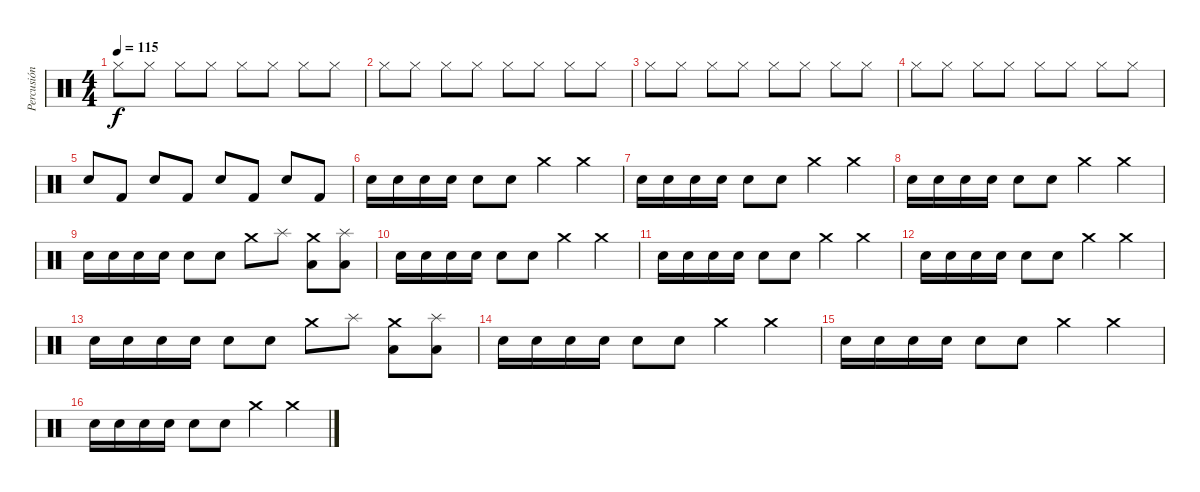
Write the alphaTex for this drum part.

\track ("Percusión" "Percusión") {instrument percussion}
\staff {score}
\articulation defaults
\ts (4 4)
\tempo 115
\clef neutral
\ks c "Hi-Hat (closed)".8{dy f} "Hi-Hat (closed)".8 "Hi-Hat (closed)".8 "Hi-Hat (closed)".8 "Hi-Hat (closed)".8 "Hi-Hat (closed)".8 "Hi-Hat (closed)".8 "Hi-Hat (closed)".8
|
"Hi-Hat (closed)".8 "Hi-Hat (closed)".8 "Hi-Hat (closed)".8 "Hi-Hat (closed)".8 "Hi-Hat (closed)".8 "Hi-Hat (closed)".8 "Hi-Hat (closed)".8 "Hi-Hat (closed)".8 |
"Hi-Hat (closed)".8 "Hi-Hat (closed)".8 "Hi-Hat (closed)".8 "Hi-Hat (closed)".8 "Hi-Hat (closed)".8 "Hi-Hat (closed)".8 "Hi-Hat (closed)".8 "Hi-Hat (closed)".8 |
"Hi-Hat (closed)".8 "Hi-Hat (closed)".8 "Hi-Hat (closed)".8 "Hi-Hat (closed)".8 "Hi-Hat (closed)".8 "Hi-Hat (closed)".8 "Hi-Hat (closed)".8 "Hi-Hat (closed)".8 |
"Snare (hit) 2".8 "Kick (hit) 2".8 "Snare (hit) 2".8 "Kick (hit) 2".8 "Snare (hit) 2".8 "Kick (hit) 2".8 "Snare (hit) 2".8 "Kick (hit) 2".8 |
"Snare (hit) 2".16 "Snare (hit) 2".16 "Snare (hit) 2".16 "Snare (hit) 2".16 "Snare (hit) 2".8 "Snare (hit) 2".8 "Crash medium (hit)".4 "Crash medium (hit)".4 |
"Snare (hit) 2".16 "Snare (hit) 2".16 "Snare (hit) 2".16 "Snare (hit) 2".16 "Snare (hit) 2".8 "Snare (hit) 2".8 "Crash medium (hit)".4 "Crash medium (hit)".4 |
"Snare (hit) 2".16 "Snare (hit) 2".16 "Snare (hit) 2".16 "Snare (hit) 2".16 "Snare (hit) 2".8 "Snare (hit) 2".8 "Crash medium (hit)".4 "Crash medium (hit)".4 |
"Snare (hit) 2".16 "Snare (hit) 2".16 "Snare (hit) 2".16 "Snare (hit) 2".16 "Snare (hit) 2".8 "Snare (hit) 2".8 "Crash medium (hit)".8 "Splash (hit)".8 ("Crash medium (hit)" "Low Floor Tom (hit)").8 ("Splash (hit)" "Low Floor Tom (hit)").8 |
"Snare (hit) 2".16 "Snare (hit) 2".16 "Snare (hit) 2".16 "Snare (hit) 2".16 "Snare (hit) 2".8 "Snare (hit) 2".8 "Crash medium (hit)".4 "Crash medium (hit)".4 |
"Snare (hit) 2".16 "Snare (hit) 2".16 "Snare (hit) 2".16 "Snare (hit) 2".16 "Snare (hit) 2".8 "Snare (hit) 2".8 "Crash medium (hit)".4 "Crash medium (hit)".4 |
"Snare (hit) 2".16 "Snare (hit) 2".16 "Snare (hit) 2".16 "Snare (hit) 2".16 "Snare (hit) 2".8 "Snare (hit) 2".8 "Crash medium (hit)".4 "Crash medium (hit)".4 |
"Snare (hit) 2".16 "Snare (hit) 2".16 "Snare (hit) 2".16 "Snare (hit) 2".16 "Snare (hit) 2".8 "Snare (hit) 2".8 "Crash medium (hit)".8 "Splash (hit)".8 ("Crash medium (hit)" "Low Floor Tom (hit)").8 ("Splash (hit)" "Low Floor Tom (hit)").8 |
"Snare (hit) 2".16 "Snare (hit) 2".16 "Snare (hit) 2".16 "Snare (hit) 2".16 "Snare (hit) 2".8 "Snare (hit) 2".8 "Crash medium (hit)".4 "Crash medium (hit)".4 |
"Snare (hit) 2".16 "Snare (hit) 2".16 "Snare (hit) 2".16 "Snare (hit) 2".16 "Snare (hit) 2".8 "Snare (hit) 2".8 "Crash medium (hit)".4 "Crash medium (hit)".4 |
"Snare (hit) 2".16 "Snare (hit) 2".16 "Snare (hit) 2".16 "Snare (hit) 2".16 "Snare (hit) 2".8 "Snare (hit) 2".8 "Crash medium (hit)".4 "Crash medium (hit)".4
